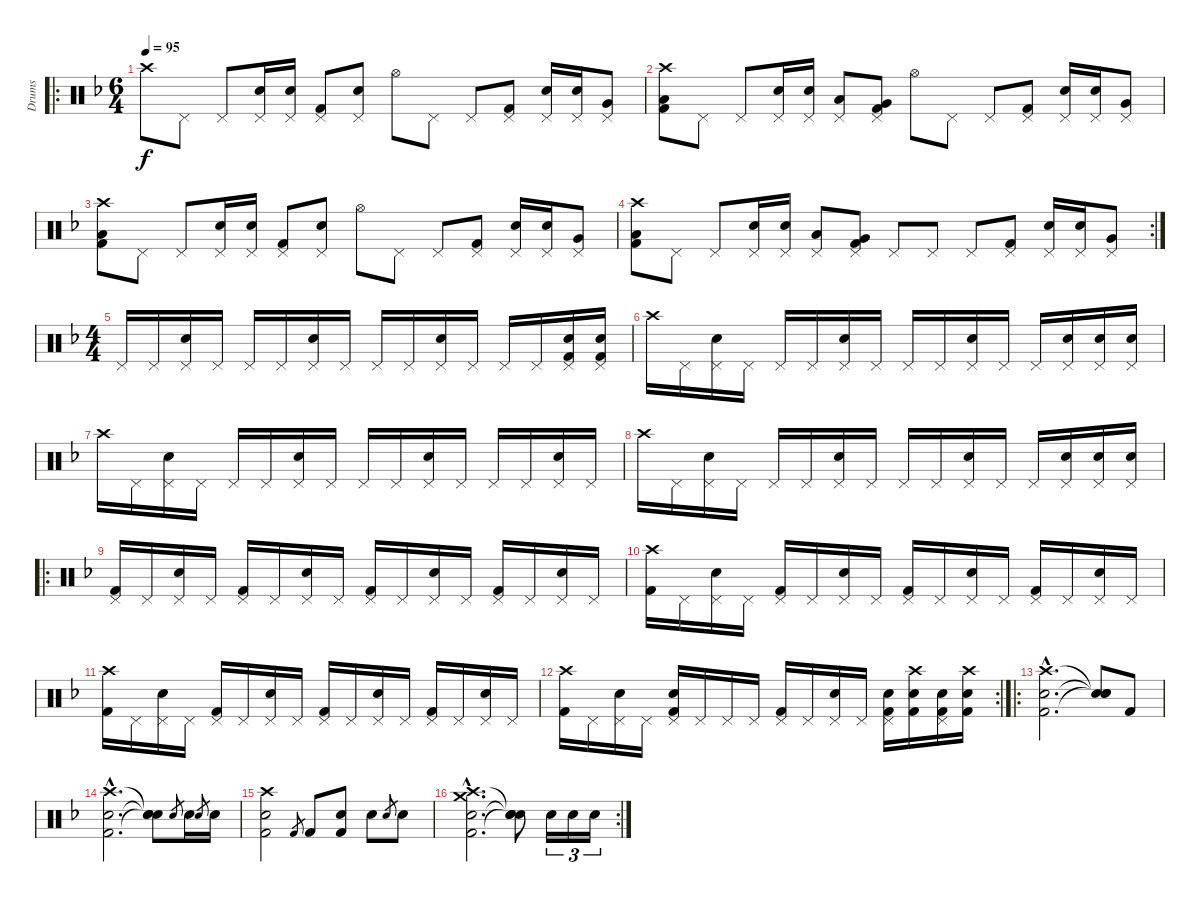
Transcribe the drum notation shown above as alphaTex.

\track ("Drums" "Drums") {instrument percussion}
\staff {score}
\articulation defaults
\ro
\ts (6 4)
\tempo 95
\clef neutral
\ks dminor "Crash high (hit)".8{dy f} "Pedal Hi-Hat (hit)".8 "Pedal Hi-Hat (hit)".8
("Pedal Hi-Hat (hit)" "Snare (hit) 2").16 ("Pedal Hi-Hat (hit)" "Snare (hit) 2").16 ("Pedal Hi-Hat (hit)" "Kick (hit) 2").8 ("Pedal Hi-Hat (hit)" "Snare (hit) 2").8 "Hi-Hat (open)".8 "Pedal Hi-Hat (hit)".8 "Pedal Hi-Hat (hit)".8 ("Pedal Hi-Hat (hit)" "Kick (hit) 2").8 ("Pedal Hi-Hat (hit)" "Snare (hit) 2").16 ("Pedal Hi-Hat (hit)" "Snare (hit) 2").16 ("Pedal Hi-Hat (hit)" "Very Low Tom (hit)").8 |
("Low Floor Tom (hit)" "Kick (hit) 2" "Crash high (hit)").8 "Pedal Hi-Hat (hit)".8 "Pedal Hi-Hat (hit)".8 ("Pedal Hi-Hat (hit)" "Snare (hit) 2").16 ("Pedal Hi-Hat (hit)" "Snare (hit) 2").16 ("Pedal Hi-Hat (hit)" "Low Tom (hit)").8 ("Pedal Hi-Hat (hit)" "Very Low Tom (hit)" "Kick (hit) 2").8 "Hi-Hat (open)".8 "Pedal Hi-Hat (hit)".8 "Pedal Hi-Hat (hit)".8 ("Pedal Hi-Hat (hit)" "Kick (hit) 2").8 ("Pedal Hi-Hat (hit)" "Snare (hit) 2").16 ("Pedal Hi-Hat (hit)" "Snare (hit) 2").16 ("Pedal Hi-Hat (hit)" "Very Low Tom (hit)").8 |
("Low Floor Tom (hit)" "Kick (hit) 2" "Crash high (hit)").8 "Pedal Hi-Hat (hit)".8 "Pedal Hi-Hat (hit)".8 ("Pedal Hi-Hat (hit)" "Snare (hit) 2").16 ("Pedal Hi-Hat (hit)" "Snare (hit) 2").16 ("Pedal Hi-Hat (hit)" "Kick (hit) 2").8 ("Pedal Hi-Hat (hit)" "Snare (hit) 2").8 "Hi-Hat (open)".8 "Pedal Hi-Hat (hit)".8 "Pedal Hi-Hat (hit)".8 ("Pedal Hi-Hat (hit)" "Kick (hit) 2").8 ("Pedal Hi-Hat (hit)" "Snare (hit) 2").16 ("Pedal Hi-Hat (hit)" "Snare (hit) 2").16 ("Pedal Hi-Hat (hit)" "Very Low Tom (hit)").8 |
\rc 2
("Low Floor Tom (hit)" "Kick (hit) 2" "Crash high (hit)").8 "Pedal Hi-Hat (hit)".8 "Pedal Hi-Hat (hit)".8 ("Pedal Hi-Hat (hit)" "Snare (hit) 2").16 ("Pedal Hi-Hat (hit)" "Snare (hit) 2").16 ("Pedal Hi-Hat (hit)" "Low Tom (hit)").8 ("Pedal Hi-Hat (hit)" "Very Low Tom (hit)" "Kick (hit) 2").8 "Pedal Hi-Hat (hit)".8 "Pedal Hi-Hat (hit)".8 "Pedal Hi-Hat (hit)".8 ("Pedal Hi-Hat (hit)" "Kick (hit) 2").8 ("Pedal Hi-Hat (hit)" "Snare (hit) 2").16 ("Pedal Hi-Hat (hit)" "Snare (hit) 2").16 ("Pedal Hi-Hat (hit)" "Very Low Tom (hit)").8 |
\ts (4 4)
"Pedal Hi-Hat (hit)".16 "Pedal Hi-Hat (hit)".16 ("Pedal Hi-Hat (hit)" "Snare (hit) 2").16 "Pedal Hi-Hat (hit)".16 "Pedal Hi-Hat (hit)".16 "Pedal Hi-Hat (hit)".16 ("Pedal Hi-Hat (hit)" "Snare (hit) 2").16 "Pedal Hi-Hat (hit)".16 "Pedal Hi-Hat (hit)".16 "Pedal Hi-Hat (hit)".16 ("Pedal Hi-Hat (hit)" "Snare (hit) 2").16 "Pedal Hi-Hat (hit)".16 "Pedal Hi-Hat (hit)".16 "Pedal Hi-Hat (hit)".16 ("Pedal Hi-Hat (hit)" "Snare (hit) 2" "Kick (hit) 2").16 ("Pedal Hi-Hat (hit)" "Snare (hit) 2" "Kick (hit) 2").16 |
"Crash high (hit)".16 "Pedal Hi-Hat (hit)".16 ("Pedal Hi-Hat (hit)" "Snare (hit) 2").16 "Pedal Hi-Hat (hit)".16 "Pedal Hi-Hat (hit)".16 "Pedal Hi-Hat (hit)".16 ("Pedal Hi-Hat (hit)" "Snare (hit) 2").16 "Pedal Hi-Hat (hit)".16 "Pedal Hi-Hat (hit)".16 "Pedal Hi-Hat (hit)".16 ("Pedal Hi-Hat (hit)" "Snare (hit) 2").16 "Pedal Hi-Hat (hit)".16 "Pedal Hi-Hat (hit)".16 ("Pedal Hi-Hat (hit)" "Snare (hit) 2").16 ("Pedal Hi-Hat (hit)" "Snare (hit) 2").16 ("Pedal Hi-Hat (hit)" "Snare (hit) 2").16 |
"Crash high (hit)".16 "Pedal Hi-Hat (hit)".16 ("Pedal Hi-Hat (hit)" "Snare (hit) 2").16 "Pedal Hi-Hat (hit)".16 "Pedal Hi-Hat (hit)".16 "Pedal Hi-Hat (hit)".16 ("Pedal Hi-Hat (hit)" "Snare (hit) 2").16 "Pedal Hi-Hat (hit)".16 "Pedal Hi-Hat (hit)".16 "Pedal Hi-Hat (hit)".16 ("Pedal Hi-Hat (hit)" "Snare (hit) 2").16 "Pedal Hi-Hat (hit)".16 "Pedal Hi-Hat (hit)".16 "Pedal Hi-Hat (hit)".16 ("Pedal Hi-Hat (hit)" "Snare (hit) 2").16 "Pedal Hi-Hat (hit)".16 |
"Crash high (hit)".16 "Pedal Hi-Hat (hit)".16 ("Pedal Hi-Hat (hit)" "Snare (hit) 2").16 "Pedal Hi-Hat (hit)".16 "Pedal Hi-Hat (hit)".16 "Pedal Hi-Hat (hit)".16 ("Pedal Hi-Hat (hit)" "Snare (hit) 2").16 "Pedal Hi-Hat (hit)".16 "Pedal Hi-Hat (hit)".16 "Pedal Hi-Hat (hit)".16 ("Pedal Hi-Hat (hit)" "Snare (hit) 2").16 "Pedal Hi-Hat (hit)".16 "Pedal Hi-Hat (hit)".16 ("Pedal Hi-Hat (hit)" "Snare (hit) 2").16 ("Pedal Hi-Hat (hit)" "Snare (hit) 2").16 ("Pedal Hi-Hat (hit)" "Snare (hit) 2").16 |
\ro
("Pedal Hi-Hat (hit)" "Kick (hit) 2").16 "Pedal Hi-Hat (hit)".16 ("Pedal Hi-Hat (hit)" "Snare (hit) 2").16 "Pedal Hi-Hat (hit)".16 ("Pedal Hi-Hat (hit)" "Kick (hit) 2").16 "Pedal Hi-Hat (hit)".16 ("Pedal Hi-Hat (hit)" "Snare (hit) 2").16 "Pedal Hi-Hat (hit)".16 ("Pedal Hi-Hat (hit)" "Kick (hit) 2").16 "Pedal Hi-Hat (hit)".16 ("Pedal Hi-Hat (hit)" "Snare (hit) 2").16 "Pedal Hi-Hat (hit)".16 ("Pedal Hi-Hat (hit)" "Kick (hit) 2").16 "Pedal Hi-Hat (hit)".16 ("Pedal Hi-Hat (hit)" "Snare (hit) 2").16 "Pedal Hi-Hat (hit)".16 |
("Crash high (hit)" "Kick (hit) 2").16 "Pedal Hi-Hat (hit)".16 ("Pedal Hi-Hat (hit)" "Snare (hit) 2").16 "Pedal Hi-Hat (hit)".16 ("Pedal Hi-Hat (hit)" "Kick (hit) 2").16 "Pedal Hi-Hat (hit)".16 ("Pedal Hi-Hat (hit)" "Snare (hit) 2").16 "Pedal Hi-Hat (hit)".16 ("Pedal Hi-Hat (hit)" "Kick (hit) 2").16 "Pedal Hi-Hat (hit)".16 ("Pedal Hi-Hat (hit)" "Snare (hit) 2").16 "Pedal Hi-Hat (hit)".16 ("Pedal Hi-Hat (hit)" "Kick (hit) 2").16 "Pedal Hi-Hat (hit)".16 ("Pedal Hi-Hat (hit)" "Snare (hit) 2").16 "Pedal Hi-Hat (hit)".16 |
("Crash high (hit)" "Kick (hit) 2").16 "Pedal Hi-Hat (hit)".16 ("Pedal Hi-Hat (hit)" "Snare (hit) 2").16 "Pedal Hi-Hat (hit)".16 ("Pedal Hi-Hat (hit)" "Kick (hit) 2").16 "Pedal Hi-Hat (hit)".16 ("Pedal Hi-Hat (hit)" "Snare (hit) 2").16 "Pedal Hi-Hat (hit)".16 ("Pedal Hi-Hat (hit)" "Kick (hit) 2").16 "Pedal Hi-Hat (hit)".16 ("Pedal Hi-Hat (hit)" "Snare (hit) 2").16 "Pedal Hi-Hat (hit)".16 ("Pedal Hi-Hat (hit)" "Kick (hit) 2").16 "Pedal Hi-Hat (hit)".16 ("Pedal Hi-Hat (hit)" "Snare (hit) 2").16 "Pedal Hi-Hat (hit)".16 |
\rc 2
("Crash high (hit)" "Kick (hit) 2").16 "Pedal Hi-Hat (hit)".16 ("Pedal Hi-Hat (hit)" "Snare (hit) 2").16 "Pedal Hi-Hat (hit)".16 ("Pedal Hi-Hat (hit)" "Snare (hit) 2" "Kick (hit) 2").16 "Pedal Hi-Hat (hit)".16 "Pedal Hi-Hat (hit)".16 "Pedal Hi-Hat (hit)".16 ("Pedal Hi-Hat (hit)" "Kick (hit) 2").16 "Pedal Hi-Hat (hit)".16 ("Pedal Hi-Hat (hit)" "Snare (hit) 2").16 "Pedal Hi-Hat (hit)".16 ("Pedal Hi-Hat (hit)" "Snare (hit) 2" "Kick (hit) 2").16 ("Crash high (hit)" "Snare (hit) 2" "Kick (hit) 2").16 ("Pedal Hi-Hat (hit)" "Snare (hit) 2" "Kick (hit) 2").16 ("Crash high (hit)" "Snare (hit) 2" "Kick (hit) 2").16 |
\ro
("Snare (hit) 2"{hac} "Kick (hit) 2"{hac} "Crash high (hit)"{hac}).2{d} ("Snare (hit)"{t} "Snare (hit)"{t} "Snare (hit)"{t}).8 "Kick (hit) 2".8 |
("Snare (hit) 2"{hac} "Kick (hit) 2"{hac} "Crash high (hit)"{hac}).2{d} ("Snare (hit)"{t} "Snare (hit)"{t} "Snare (hit)"{t}).8 "Snare (hit) 2".8{gr} "Snare (hit) 2".16 "Snare (hit) 2".8{gr} "Snare (hit) 2".16 |
("Snare (hit) 2" "Kick (hit) 2" "Crash high (hit)").2 "Kick (hit) 2".8{gr} "Kick (hit) 2".8 ("Kick (hit) 2" "Snare (hit) 2").8 "Snare (hit) 2".8 "Snare (hit) 2".8{gr} "Snare (hit) 2".8 |
\rc 2
("Crash high (hit)"{hac} "Snare (hit) 2"{hac} "Kick (hit) 2"{hac} "Crash medium (hit)"{hac}).2{d} ("Snare (hit)"{t} "Snare (hit)"{t} "Snare (hit)"{t}).8 "Snare (hit) 2".16{tu (3 2)} "Snare (hit) 2".16{tu (3 2)} "Snare (hit) 2".16{tu (3 2)}
